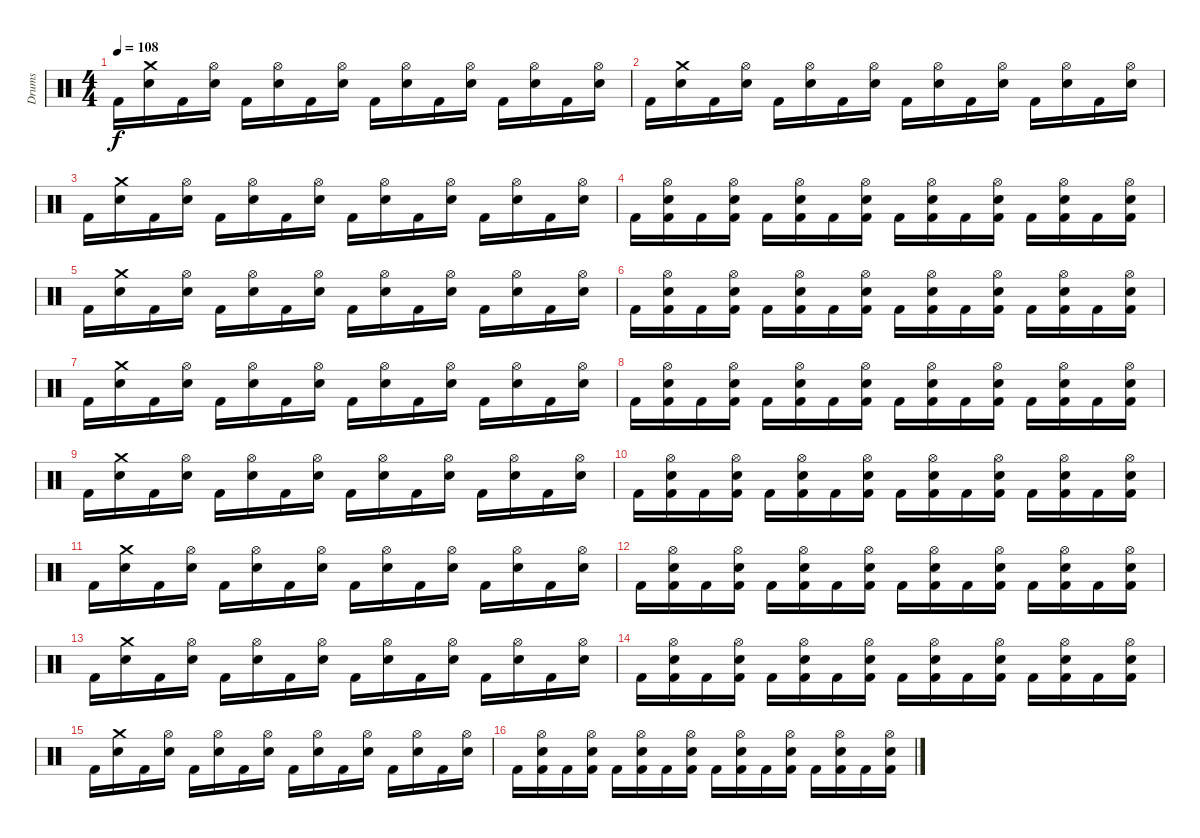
\track ("Drums" "Drums") {instrument percussion}
\staff {score}
\articulation defaults
\ts (4 4)
\tempo 108
\clef neutral
\ks c "Kick (hit) 2".16{dy f}
("Crash medium (hit)" "Snare (hit) 2").16 "Kick (hit) 2".16 ("Hi-Hat (open)" "Snare (hit) 2").16 "Kick (hit) 2".16 ("Hi-Hat (open)" "Snare (hit) 2").16 "Kick (hit) 2".16 ("Hi-Hat (open)" "Snare (hit) 2").16 "Kick (hit) 2".16 ("Hi-Hat (open)" "Snare (hit) 2").16 "Kick (hit) 2".16 ("Hi-Hat (open)" "Snare (hit) 2").16 "Kick (hit) 2".16 ("Hi-Hat (open)" "Snare (hit) 2").16 "Kick (hit) 2".16 ("Hi-Hat (open)" "Snare (hit) 2").16 |
"Kick (hit) 2".16 ("Crash medium (hit)" "Snare (hit) 2").16 "Kick (hit) 2".16 ("Hi-Hat (open)" "Snare (hit) 2").16 "Kick (hit) 2".16 ("Hi-Hat (open)" "Snare (hit) 2").16 "Kick (hit) 2".16 ("Hi-Hat (open)" "Snare (hit) 2").16 "Kick (hit) 2".16 ("Hi-Hat (open)" "Snare (hit) 2").16 "Kick (hit) 2".16 ("Hi-Hat (open)" "Snare (hit) 2").16 "Kick (hit) 2".16 ("Hi-Hat (open)" "Snare (hit) 2").16 "Kick (hit) 2".16 ("Hi-Hat (open)" "Snare (hit) 2").16 |
"Kick (hit) 2".16 ("Crash medium (hit)" "Snare (hit) 2").16 "Kick (hit) 2".16 ("Hi-Hat (open)" "Snare (hit) 2").16 "Kick (hit) 2".16 ("Hi-Hat (open)" "Snare (hit) 2").16 "Kick (hit) 2".16 ("Hi-Hat (open)" "Snare (hit) 2").16 "Kick (hit) 2".16 ("Hi-Hat (open)" "Snare (hit) 2").16 "Kick (hit) 2".16 ("Hi-Hat (open)" "Snare (hit) 2").16 "Kick (hit) 2".16 ("Hi-Hat (open)" "Snare (hit) 2").16 "Kick (hit) 2".16 ("Hi-Hat (open)" "Snare (hit) 2").16 |
"Kick (hit) 2".16 ("Hi-Hat (open)" "Snare (hit) 2" "Kick (hit) 2").16 "Kick (hit) 2".16 ("Hi-Hat (open)" "Snare (hit) 2" "Kick (hit) 2").16 "Kick (hit) 2".16 ("Hi-Hat (open)" "Snare (hit) 2" "Kick (hit) 2").16 "Kick (hit) 2".16 ("Hi-Hat (open)" "Snare (hit) 2" "Kick (hit) 2").16 "Kick (hit) 2".16 ("Hi-Hat (open)" "Snare (hit) 2" "Kick (hit) 2").16 "Kick (hit) 2".16 ("Hi-Hat (open)" "Snare (hit) 2" "Kick (hit) 2").16 "Kick (hit) 2".16 ("Hi-Hat (open)" "Snare (hit) 2" "Kick (hit) 2").16 "Kick (hit) 2".16 ("Hi-Hat (open)" "Snare (hit) 2" "Kick (hit) 2").16 |
"Kick (hit) 2".16 ("Crash medium (hit)" "Snare (hit) 2").16 "Kick (hit) 2".16 ("Hi-Hat (open)" "Snare (hit) 2").16 "Kick (hit) 2".16 ("Hi-Hat (open)" "Snare (hit) 2").16 "Kick (hit) 2".16 ("Hi-Hat (open)" "Snare (hit) 2").16 "Kick (hit) 2".16 ("Hi-Hat (open)" "Snare (hit) 2").16 "Kick (hit) 2".16 ("Hi-Hat (open)" "Snare (hit) 2").16 "Kick (hit) 2".16 ("Hi-Hat (open)" "Snare (hit) 2").16 "Kick (hit) 2".16 ("Hi-Hat (open)" "Snare (hit) 2").16 |
"Kick (hit) 2".16 ("Hi-Hat (open)" "Snare (hit) 2" "Kick (hit) 2").16 "Kick (hit) 2".16 ("Hi-Hat (open)" "Snare (hit) 2" "Kick (hit) 2").16 "Kick (hit) 2".16 ("Hi-Hat (open)" "Snare (hit) 2" "Kick (hit) 2").16 "Kick (hit) 2".16 ("Hi-Hat (open)" "Snare (hit) 2" "Kick (hit) 2").16 "Kick (hit) 2".16 ("Hi-Hat (open)" "Snare (hit) 2" "Kick (hit) 2").16 "Kick (hit) 2".16 ("Hi-Hat (open)" "Snare (hit) 2" "Kick (hit) 2").16 "Kick (hit) 2".16 ("Hi-Hat (open)" "Snare (hit) 2" "Kick (hit) 2").16 "Kick (hit) 2".16 ("Hi-Hat (open)" "Snare (hit) 2" "Kick (hit) 2").16 |
"Kick (hit) 2".16 ("Crash medium (hit)" "Snare (hit) 2").16 "Kick (hit) 2".16 ("Hi-Hat (open)" "Snare (hit) 2").16 "Kick (hit) 2".16 ("Hi-Hat (open)" "Snare (hit) 2").16 "Kick (hit) 2".16 ("Hi-Hat (open)" "Snare (hit) 2").16 "Kick (hit) 2".16 ("Hi-Hat (open)" "Snare (hit) 2").16 "Kick (hit) 2".16 ("Hi-Hat (open)" "Snare (hit) 2").16 "Kick (hit) 2".16 ("Hi-Hat (open)" "Snare (hit) 2").16 "Kick (hit) 2".16 ("Hi-Hat (open)" "Snare (hit) 2").16 |
"Kick (hit) 2".16 ("Hi-Hat (open)" "Snare (hit) 2" "Kick (hit) 2").16 "Kick (hit) 2".16 ("Hi-Hat (open)" "Snare (hit) 2" "Kick (hit) 2").16 "Kick (hit) 2".16 ("Hi-Hat (open)" "Snare (hit) 2" "Kick (hit) 2").16 "Kick (hit) 2".16 ("Hi-Hat (open)" "Snare (hit) 2" "Kick (hit) 2").16 "Kick (hit) 2".16 ("Hi-Hat (open)" "Snare (hit) 2" "Kick (hit) 2").16 "Kick (hit) 2".16 ("Hi-Hat (open)" "Snare (hit) 2" "Kick (hit) 2").16 "Kick (hit) 2".16 ("Hi-Hat (open)" "Snare (hit) 2" "Kick (hit) 2").16 "Kick (hit) 2".16 ("Hi-Hat (open)" "Snare (hit) 2" "Kick (hit) 2").16 |
"Kick (hit) 2".16 ("Crash medium (hit)" "Snare (hit) 2").16 "Kick (hit) 2".16 ("Hi-Hat (open)" "Snare (hit) 2").16 "Kick (hit) 2".16 ("Hi-Hat (open)" "Snare (hit) 2").16 "Kick (hit) 2".16 ("Hi-Hat (open)" "Snare (hit) 2").16 "Kick (hit) 2".16 ("Hi-Hat (open)" "Snare (hit) 2").16 "Kick (hit) 2".16 ("Hi-Hat (open)" "Snare (hit) 2").16 "Kick (hit) 2".16 ("Hi-Hat (open)" "Snare (hit) 2").16 "Kick (hit) 2".16 ("Hi-Hat (open)" "Snare (hit) 2").16 |
"Kick (hit) 2".16 ("Hi-Hat (open)" "Snare (hit) 2" "Kick (hit) 2").16 "Kick (hit) 2".16 ("Hi-Hat (open)" "Snare (hit) 2" "Kick (hit) 2").16 "Kick (hit) 2".16 ("Hi-Hat (open)" "Snare (hit) 2" "Kick (hit) 2").16 "Kick (hit) 2".16 ("Hi-Hat (open)" "Snare (hit) 2" "Kick (hit) 2").16 "Kick (hit) 2".16 ("Hi-Hat (open)" "Snare (hit) 2" "Kick (hit) 2").16 "Kick (hit) 2".16 ("Hi-Hat (open)" "Snare (hit) 2" "Kick (hit) 2").16 "Kick (hit) 2".16 ("Hi-Hat (open)" "Snare (hit) 2" "Kick (hit) 2").16 "Kick (hit) 2".16 ("Hi-Hat (open)" "Snare (hit) 2" "Kick (hit) 2").16 |
"Kick (hit) 2".16 ("Crash medium (hit)" "Snare (hit) 2").16 "Kick (hit) 2".16 ("Hi-Hat (open)" "Snare (hit) 2").16 "Kick (hit) 2".16 ("Hi-Hat (open)" "Snare (hit) 2").16 "Kick (hit) 2".16 ("Hi-Hat (open)" "Snare (hit) 2").16 "Kick (hit) 2".16 ("Hi-Hat (open)" "Snare (hit) 2").16 "Kick (hit) 2".16 ("Hi-Hat (open)" "Snare (hit) 2").16 "Kick (hit) 2".16 ("Hi-Hat (open)" "Snare (hit) 2").16 "Kick (hit) 2".16 ("Hi-Hat (open)" "Snare (hit) 2").16 |
"Kick (hit) 2".16 ("Hi-Hat (open)" "Snare (hit) 2" "Kick (hit) 2").16 "Kick (hit) 2".16 ("Hi-Hat (open)" "Snare (hit) 2" "Kick (hit) 2").16 "Kick (hit) 2".16 ("Hi-Hat (open)" "Snare (hit) 2" "Kick (hit) 2").16 "Kick (hit) 2".16 ("Hi-Hat (open)" "Snare (hit) 2" "Kick (hit) 2").16 "Kick (hit) 2".16 ("Hi-Hat (open)" "Snare (hit) 2" "Kick (hit) 2").16 "Kick (hit) 2".16 ("Hi-Hat (open)" "Snare (hit) 2" "Kick (hit) 2").16 "Kick (hit) 2".16 ("Hi-Hat (open)" "Snare (hit) 2" "Kick (hit) 2").16 "Kick (hit) 2".16 ("Hi-Hat (open)" "Snare (hit) 2" "Kick (hit) 2").16 |
"Kick (hit) 2".16 ("Crash medium (hit)" "Snare (hit) 2").16 "Kick (hit) 2".16 ("Hi-Hat (open)" "Snare (hit) 2").16 "Kick (hit) 2".16 ("Hi-Hat (open)" "Snare (hit) 2").16 "Kick (hit) 2".16 ("Hi-Hat (open)" "Snare (hit) 2").16 "Kick (hit) 2".16 ("Hi-Hat (open)" "Snare (hit) 2").16 "Kick (hit) 2".16 ("Hi-Hat (open)" "Snare (hit) 2").16 "Kick (hit) 2".16 ("Hi-Hat (open)" "Snare (hit) 2").16 "Kick (hit) 2".16 ("Hi-Hat (open)" "Snare (hit) 2").16 |
"Kick (hit) 2".16 ("Hi-Hat (open)" "Snare (hit) 2" "Kick (hit) 2").16 "Kick (hit) 2".16 ("Hi-Hat (open)" "Snare (hit) 2" "Kick (hit) 2").16 "Kick (hit) 2".16 ("Hi-Hat (open)" "Snare (hit) 2" "Kick (hit) 2").16 "Kick (hit) 2".16 ("Hi-Hat (open)" "Snare (hit) 2" "Kick (hit) 2").16 "Kick (hit) 2".16 ("Hi-Hat (open)" "Snare (hit) 2" "Kick (hit) 2").16 "Kick (hit) 2".16 ("Hi-Hat (open)" "Snare (hit) 2" "Kick (hit) 2").16 "Kick (hit) 2".16 ("Hi-Hat (open)" "Snare (hit) 2" "Kick (hit) 2").16 "Kick (hit) 2".16 ("Hi-Hat (open)" "Snare (hit) 2" "Kick (hit) 2").16 |
"Kick (hit) 2".16 ("Crash medium (hit)" "Snare (hit) 2").16 "Kick (hit) 2".16 ("Hi-Hat (open)" "Snare (hit) 2").16 "Kick (hit) 2".16 ("Hi-Hat (open)" "Snare (hit) 2").16 "Kick (hit) 2".16 ("Hi-Hat (open)" "Snare (hit) 2").16 "Kick (hit) 2".16 ("Hi-Hat (open)" "Snare (hit) 2").16 "Kick (hit) 2".16 ("Hi-Hat (open)" "Snare (hit) 2").16 "Kick (hit) 2".16 ("Hi-Hat (open)" "Snare (hit) 2").16 "Kick (hit) 2".16 ("Hi-Hat (open)" "Snare (hit) 2").16 |
"Kick (hit) 2".16 ("Hi-Hat (open)" "Snare (hit) 2" "Kick (hit) 2").16 "Kick (hit) 2".16 ("Hi-Hat (open)" "Snare (hit) 2" "Kick (hit) 2").16 "Kick (hit) 2".16 ("Hi-Hat (open)" "Snare (hit) 2" "Kick (hit) 2").16 "Kick (hit) 2".16 ("Hi-Hat (open)" "Snare (hit) 2" "Kick (hit) 2").16 "Kick (hit) 2".16 ("Hi-Hat (open)" "Snare (hit) 2" "Kick (hit) 2").16 "Kick (hit) 2".16 ("Hi-Hat (open)" "Snare (hit) 2" "Kick (hit) 2").16 "Kick (hit) 2".16 ("Hi-Hat (open)" "Snare (hit) 2" "Kick (hit) 2").16 "Kick (hit) 2".16 ("Hi-Hat (open)" "Snare (hit) 2" "Kick (hit) 2").16
